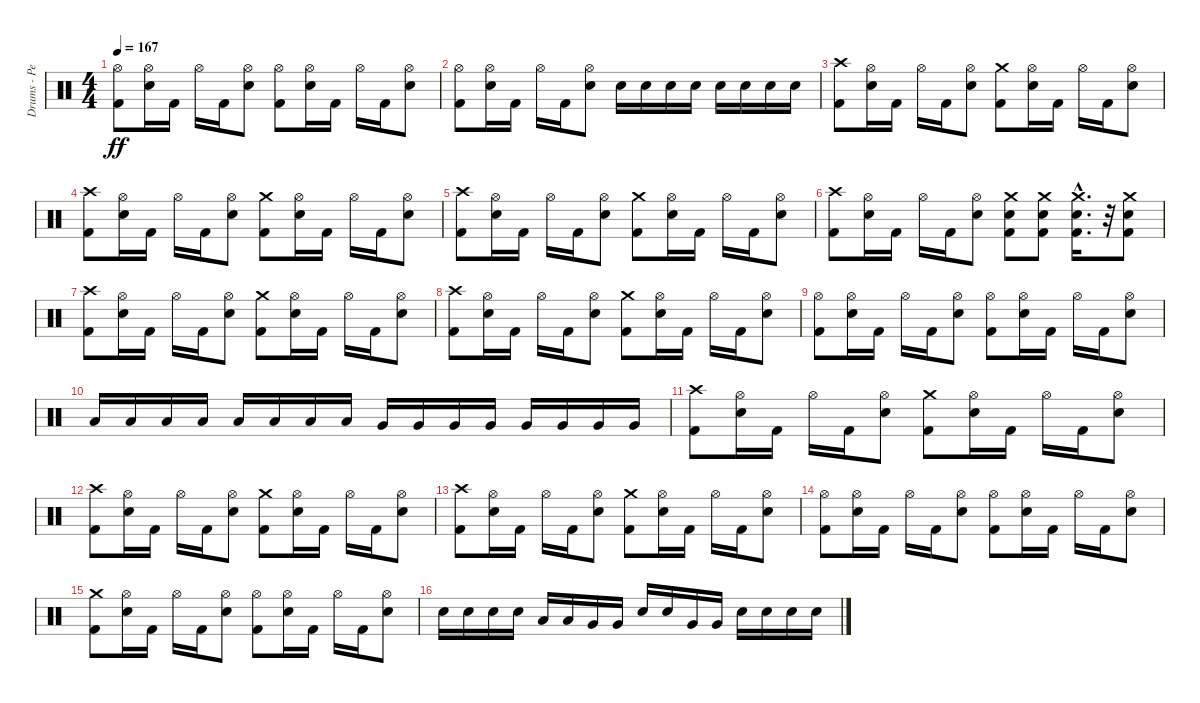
\track ("Drums - Pete Finestone" "Drums - Pe") {instrument percussion}
\staff {score}
\articulation defaults
\ts (4 4)
\tempo 167
\clef neutral
\ks c
("Hi-Hat (open)" "Kick (hit) 2").8{dy ff} ("Hi-Hat (open)" "Electric Snare (hit)").16 "Kick (hit) 2".16 "Hi-Hat (open)".16 "Kick (hit) 2".16 ("Hi-Hat (open)" "Electric Snare (hit)").8 ("Hi-Hat (open)" "Kick (hit) 2").8 ("Hi-Hat (open)" "Electric Snare (hit)").16 "Kick (hit) 2".16 "Hi-Hat (open)".16 "Kick (hit) 2".16 ("Hi-Hat (open)" "Electric Snare (hit)").8 |
("Hi-Hat (open)" "Kick (hit) 2").8 ("Hi-Hat (open)" "Electric Snare (hit)").16 "Kick (hit) 2".16 "Hi-Hat (open)".16 "Kick (hit) 2".16 ("Hi-Hat (open)" "Electric Snare (hit)").8 "Electric Snare (hit)".16 "Electric Snare (hit)".16 "Electric Snare (hit)".16 "Electric Snare (hit)".16 "Electric Snare (hit)".16 "Electric Snare (hit)".16 "Electric Snare (hit)".16 "Electric Snare (hit)".16 |
("Kick (hit) 2" "Crash high (hit)").8 ("Electric Snare (hit)" "Hi-Hat (open)").16 "Kick (hit) 2".16 "Hi-Hat (open)".16 "Kick (hit) 2".16 ("Hi-Hat (open)" "Electric Snare (hit)").8 ("Crash medium (hit)" "Kick (hit) 2").8 ("Hi-Hat (open)" "Electric Snare (hit)").16 "Kick (hit) 2".16 "Hi-Hat (open)".16 "Kick (hit) 2".16 ("Hi-Hat (open)" "Electric Snare (hit)").8 |
("Kick (hit) 2" "Crash high (hit)").8 ("Electric Snare (hit)" "Hi-Hat (open)").16 "Kick (hit) 2".16 "Hi-Hat (open)".16 "Kick (hit) 2".16 ("Hi-Hat (open)" "Electric Snare (hit)").8 ("Crash medium (hit)" "Kick (hit) 2").8 ("Hi-Hat (open)" "Electric Snare (hit)").16 "Kick (hit) 2".16 "Hi-Hat (open)".16 "Kick (hit) 2".16 ("Hi-Hat (open)" "Electric Snare (hit)").8 |
("Kick (hit) 2" "Crash high (hit)").8 ("Electric Snare (hit)" "Hi-Hat (open)").16 "Kick (hit) 2".16 "Hi-Hat (open)".16 "Kick (hit) 2".16 ("Hi-Hat (open)" "Electric Snare (hit)").8 ("Crash medium (hit)" "Kick (hit) 2").8 ("Hi-Hat (open)" "Electric Snare (hit)").16 "Kick (hit) 2".16 "Hi-Hat (open)".16 "Kick (hit) 2".16 ("Hi-Hat (open)" "Electric Snare (hit)").8 |
("Kick (hit) 2" "Crash high (hit)").8 ("Electric Snare (hit)" "Hi-Hat (open)").16 "Kick (hit) 2".16 "Hi-Hat (open)".16 "Kick (hit) 2".16 ("Hi-Hat (open)" "Electric Snare (hit)").8 ("Crash medium (hit)" "Kick (hit) 2" "Electric Snare (hit)").8 ("Crash medium (hit)" "Kick (hit) 2" "Electric Snare (hit)").8 ("Crash medium (hit)"{hac} "Kick (hit) 2" "Electric Snare (hit)").16{d} r.32 ("Crash medium (hit)" "Kick (hit) 2" "Electric Snare (hit)").8 |
("Kick (hit) 2" "Crash high (hit)").8 ("Electric Snare (hit)" "Hi-Hat (open)").16 "Kick (hit) 2".16 "Hi-Hat (open)".16 "Kick (hit) 2".16 ("Hi-Hat (open)" "Electric Snare (hit)").8 ("Crash medium (hit)" "Kick (hit) 2").8 ("Hi-Hat (open)" "Electric Snare (hit)").16 "Kick (hit) 2".16 "Hi-Hat (open)".16 "Kick (hit) 2".16 ("Hi-Hat (open)" "Electric Snare (hit)").8 |
("Kick (hit) 2" "Crash high (hit)").8 ("Electric Snare (hit)" "Hi-Hat (open)").16 "Kick (hit) 2".16 "Hi-Hat (open)".16 "Kick (hit) 2".16 ("Hi-Hat (open)" "Electric Snare (hit)").8 ("Crash medium (hit)" "Kick (hit) 2").8 ("Hi-Hat (open)" "Electric Snare (hit)").16 "Kick (hit) 2".16 "Hi-Hat (open)".16 "Kick (hit) 2".16 ("Hi-Hat (open)" "Electric Snare (hit)").8 |
("Kick (hit) 2" "Hi-Hat (open)").8 ("Electric Snare (hit)" "Hi-Hat (open)").16 "Kick (hit) 2".16 "Hi-Hat (open)".16 "Kick (hit) 2".16 ("Hi-Hat (open)" "Electric Snare (hit)").8 ("Kick (hit) 2" "Hi-Hat (open)").8 ("Hi-Hat (open)" "Electric Snare (hit)").16 "Kick (hit) 2".16 "Hi-Hat (open)".16 "Kick (hit) 2".16 ("Hi-Hat (open)" "Electric Snare (hit)").8 |
"Low Tom (hit)".16 "Low Tom (hit)".16 "Low Tom (hit)".16 "Low Tom (hit)".16 "Low Tom (hit)".16 "Low Tom (hit)".16 "Low Tom (hit)".16 "Low Tom (hit)".16 "Very Low Tom (hit)".16 "Very Low Tom (hit)".16 "Very Low Tom (hit)".16 "Very Low Tom (hit)".16 "Very Low Tom (hit)".16 "Very Low Tom (hit)".16 "Very Low Tom (hit)".16 "Very Low Tom (hit)".16 |
("Kick (hit) 2" "Crash high (hit)").8 ("Electric Snare (hit)" "Hi-Hat (open)").16 "Kick (hit) 2".16 "Hi-Hat (open)".16 "Kick (hit) 2".16 ("Hi-Hat (open)" "Electric Snare (hit)").8 ("Crash medium (hit)" "Kick (hit) 2").8 ("Hi-Hat (open)" "Electric Snare (hit)").16 "Kick (hit) 2".16 "Hi-Hat (open)".16 "Kick (hit) 2".16 ("Hi-Hat (open)" "Electric Snare (hit)").8 |
("Crash high (hit)" "Kick (hit) 2").8 ("Hi-Hat (open)" "Electric Snare (hit)").16 "Kick (hit) 2".16 "Hi-Hat (open)".16 "Kick (hit) 2".16 ("Hi-Hat (open)" "Electric Snare (hit)").8 ("Crash medium (hit)" "Kick (hit) 2").8 ("Hi-Hat (open)" "Electric Snare (hit)").16 "Kick (hit) 2".16 "Hi-Hat (open)".16 "Kick (hit) 2".16 ("Hi-Hat (open)" "Electric Snare (hit)").8 |
("Crash high (hit)" "Kick (hit) 2").8 ("Hi-Hat (open)" "Electric Snare (hit)").16 "Kick (hit) 2".16 "Hi-Hat (open)".16 "Kick (hit) 2".16 ("Hi-Hat (open)" "Electric Snare (hit)").8 ("Crash medium (hit)" "Kick (hit) 2").8 ("Hi-Hat (open)" "Electric Snare (hit)").16 "Kick (hit) 2".16 "Hi-Hat (open)".16 "Kick (hit) 2".16 ("Hi-Hat (open)" "Electric Snare (hit)").8 |
("Kick (hit) 2" "Hi-Hat (open)").8 ("Electric Snare (hit)" "Hi-Hat (open)").16 "Kick (hit) 2".16 "Hi-Hat (open)".16 "Kick (hit) 2".16 ("Electric Snare (hit)" "Hi-Hat (open)").8 ("Kick (hit) 2" "Hi-Hat (open)").8 ("Electric Snare (hit)" "Hi-Hat (open)").16 "Kick (hit) 2".16 "Hi-Hat (open)".16 "Kick (hit) 2".16 ("Electric Snare (hit)" "Hi-Hat (open)").8 |
("Crash medium (hit)" "Kick (hit) 2").8 ("Hi-Hat (open)" "Electric Snare (hit)").16 "Kick (hit) 2".16 "Hi-Hat (open)".16 "Kick (hit) 2".16 ("Hi-Hat (open)" "Electric Snare (hit)").8 ("Kick (hit) 2" "Hi-Hat (open)").8 ("Electric Snare (hit)" "Hi-Hat (open)").16 "Kick (hit) 2".16 "Hi-Hat (open)".16 "Kick (hit) 2".16 ("Electric Snare (hit)" "Hi-Hat (open)").8 |
"Electric Snare (hit)".16 "Electric Snare (hit)".16 "Electric Snare (hit)".16 "Electric Snare (hit)".16 "Low Tom (hit)".16 "Low Tom (hit)".16 "Very Low Tom (hit)".16 "Very Low Tom (hit)".16 "Electric Snare (hit)".16 "Electric Snare (hit)".16 "Very Low Tom (hit)".16 "Very Low Tom (hit)".16 "Electric Snare (hit)".16 "Electric Snare (hit)".16 "Electric Snare (hit)".16 "Electric Snare (hit)".16
